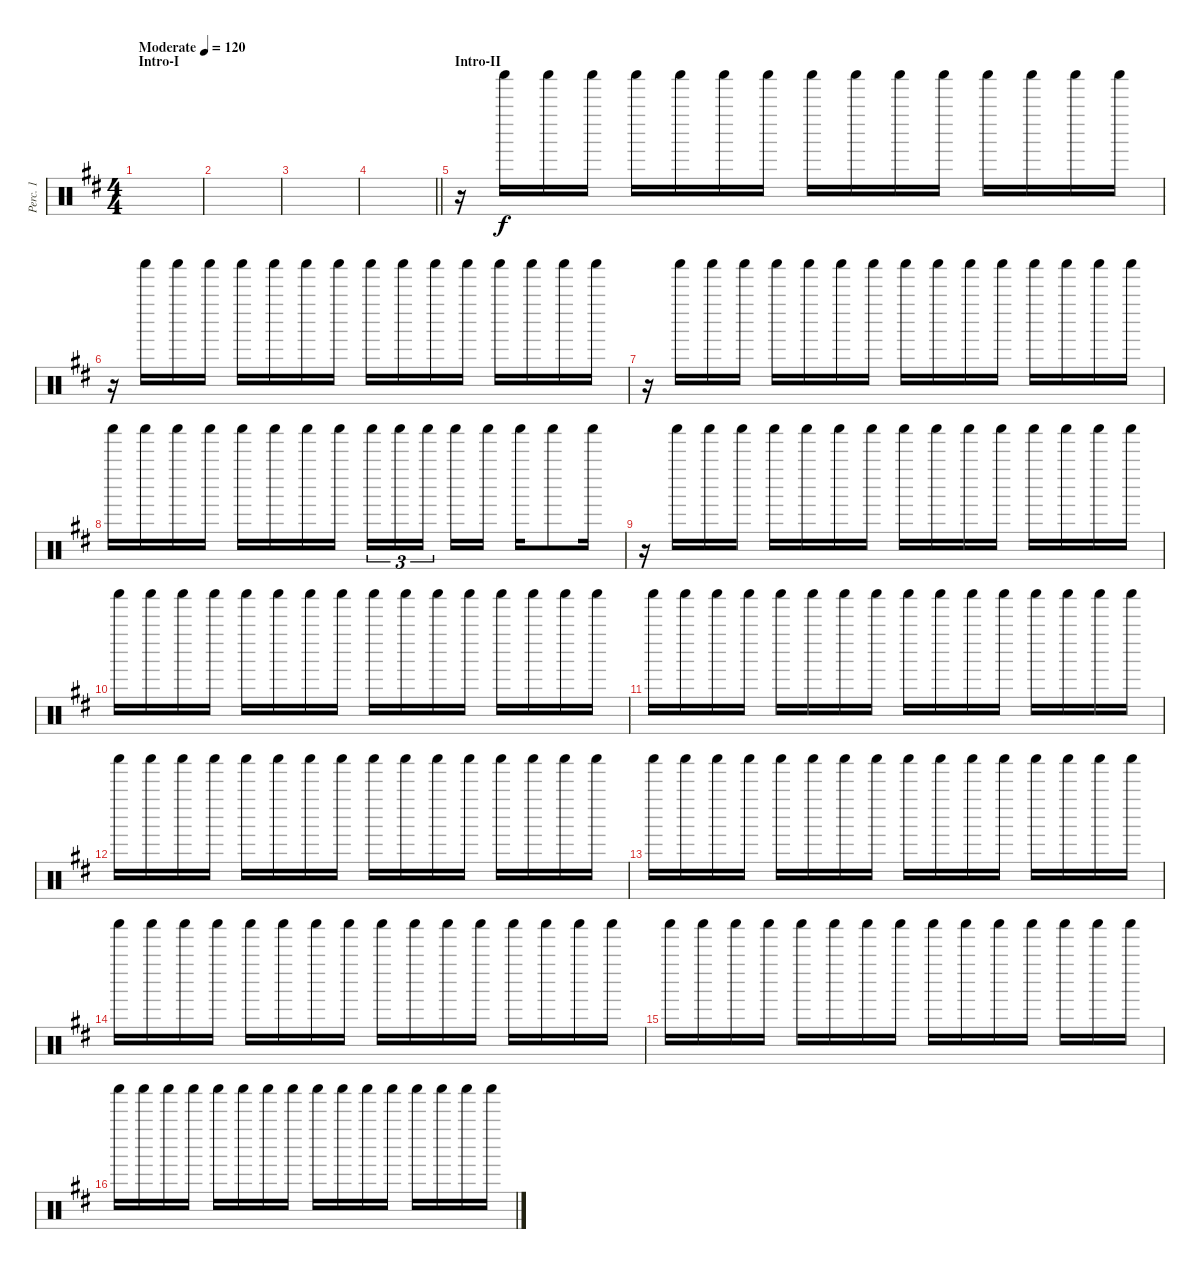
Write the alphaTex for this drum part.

\track ("Perc. 1" "Perc. 1") {instrument percussion}
\staff {score}
\articulation defaults
\ts (4 4)
\section ("" "Intro-I")
\tempo (120 "Moderate")
\clef neutral
\ks d
|
|
|
\barLineRight lightlight
|
\section ("" "Intro-II")
r.16 "Shaker (hit)".16 "Shaker (hit)".16 "Shaker (hit)".16 "Shaker (hit)".16 "Shaker (hit)".16 "Shaker (hit)".16 "Shaker (hit)".16 "Shaker (hit)".16 "Shaker (hit)".16 "Shaker (hit)".16 "Shaker (hit)".16 "Shaker (hit)".16 "Shaker (hit)".16 "Shaker (hit)".16 "Shaker (hit)".16 |
r.16 "Shaker (hit)".16 "Shaker (hit)".16 "Shaker (hit)".16 "Shaker (hit)".16 "Shaker (hit)".16 "Shaker (hit)".16 "Shaker (hit)".16 "Shaker (hit)".16 "Shaker (hit)".16 "Shaker (hit)".16 "Shaker (hit)".16 "Shaker (hit)".16 "Shaker (hit)".16 "Shaker (hit)".16 "Shaker (hit)".16 |
r.16 "Shaker (hit)".16 "Shaker (hit)".16 "Shaker (hit)".16 "Shaker (hit)".16 "Shaker (hit)".16 "Shaker (hit)".16 "Shaker (hit)".16 "Shaker (hit)".16 "Shaker (hit)".16 "Shaker (hit)".16 "Shaker (hit)".16 "Shaker (hit)".16 "Shaker (hit)".16 "Shaker (hit)".16 "Shaker (hit)".16 |
"Shaker (hit)".16 "Shaker (hit)".16 "Shaker (hit)".16 "Shaker (hit)".16 "Shaker (hit)".16 "Shaker (hit)".16 "Shaker (hit)".16 "Shaker (hit)".16 "Shaker (hit)".16{tu (3 2)} "Shaker (hit)".16{tu (3 2)} "Shaker (hit)".16{tu (3 2) beam splitsecondary} "Shaker (hit)".16 "Shaker (hit)".16 "Shaker (hit)".16 "Shaker (hit)".8 "Shaker (hit)".16 |
r.16 "Shaker (hit)".16 "Shaker (hit)".16 "Shaker (hit)".16 "Shaker (hit)".16 "Shaker (hit)".16 "Shaker (hit)".16 "Shaker (hit)".16 "Shaker (hit)".16 "Shaker (hit)".16 "Shaker (hit)".16 "Shaker (hit)".16 "Shaker (hit)".16 "Shaker (hit)".16 "Shaker (hit)".16 "Shaker (hit)".16 |
"Shaker (hit)".16 "Shaker (hit)".16 "Shaker (hit)".16 "Shaker (hit)".16 "Shaker (hit)".16 "Shaker (hit)".16 "Shaker (hit)".16 "Shaker (hit)".16 "Shaker (hit)".16 "Shaker (hit)".16 "Shaker (hit)".16 "Shaker (hit)".16 "Shaker (hit)".16 "Shaker (hit)".16 "Shaker (hit)".16 "Shaker (hit)".16 |
"Shaker (hit)".16 "Shaker (hit)".16 "Shaker (hit)".16 "Shaker (hit)".16 "Shaker (hit)".16 "Shaker (hit)".16 "Shaker (hit)".16 "Shaker (hit)".16 "Shaker (hit)".16 "Shaker (hit)".16 "Shaker (hit)".16 "Shaker (hit)".16 "Shaker (hit)".16 "Shaker (hit)".16 "Shaker (hit)".16 "Shaker (hit)".16 |
"Shaker (hit)".16 "Shaker (hit)".16 "Shaker (hit)".16 "Shaker (hit)".16 "Shaker (hit)".16 "Shaker (hit)".16 "Shaker (hit)".16 "Shaker (hit)".16 "Shaker (hit)".16 "Shaker (hit)".16 "Shaker (hit)".16 "Shaker (hit)".16 "Shaker (hit)".16 "Shaker (hit)".16 "Shaker (hit)".16 "Shaker (hit)".16 |
"Shaker (hit)".16 "Shaker (hit)".16 "Shaker (hit)".16 "Shaker (hit)".16 "Shaker (hit)".16 "Shaker (hit)".16 "Shaker (hit)".16 "Shaker (hit)".16 "Shaker (hit)".16 "Shaker (hit)".16 "Shaker (hit)".16 "Shaker (hit)".16 "Shaker (hit)".16 "Shaker (hit)".16 "Shaker (hit)".16 "Shaker (hit)".16 |
"Shaker (hit)".16 "Shaker (hit)".16 "Shaker (hit)".16 "Shaker (hit)".16 "Shaker (hit)".16 "Shaker (hit)".16 "Shaker (hit)".16 "Shaker (hit)".16 "Shaker (hit)".16 "Shaker (hit)".16 "Shaker (hit)".16 "Shaker (hit)".16 "Shaker (hit)".16 "Shaker (hit)".16 "Shaker (hit)".16 "Shaker (hit)".16 |
"Shaker (hit)".16 "Shaker (hit)".16 "Shaker (hit)".16 "Shaker (hit)".16 "Shaker (hit)".16 "Shaker (hit)".16 "Shaker (hit)".16 "Shaker (hit)".16 "Shaker (hit)".16 "Shaker (hit)".16 "Shaker (hit)".16 "Shaker (hit)".16 "Shaker (hit)".16 "Shaker (hit)".16 "Shaker (hit)".16 |
"Shaker (hit)".16 "Shaker (hit)".16 "Shaker (hit)".16 "Shaker (hit)".16 "Shaker (hit)".16 "Shaker (hit)".16 "Shaker (hit)".16 "Shaker (hit)".16 "Shaker (hit)".16 "Shaker (hit)".16 "Shaker (hit)".16 "Shaker (hit)".16 "Shaker (hit)".16 "Shaker (hit)".16 "Shaker (hit)".16 "Shaker (hit)".16
